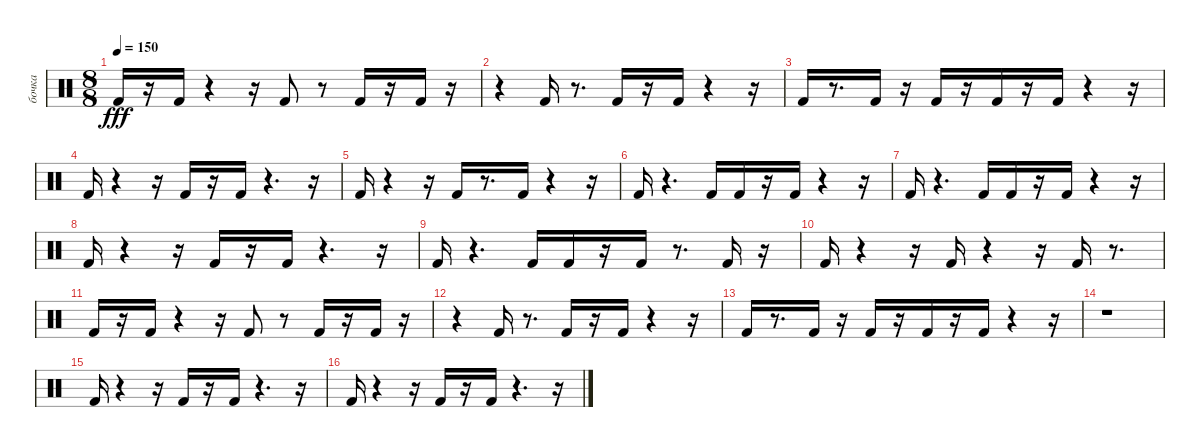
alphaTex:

\track ("бочка" "бочка") {instrument percussion}
\staff {score}
\articulation defaults
\ts (8 8)
\tempo 150
\clef neutral
\ks c "Kick (hit) 2".16{dy fff}
r.16 "Kick (hit) 2".16 r.4 r.16 "Kick (hit) 2".8 r.8 "Kick (hit) 2".16 r.16 "Kick (hit) 2".16 r.16 |
r.4 "Kick (hit) 2".16 r.8{d} "Kick (hit) 2".16 r.16 "Kick (hit) 2".16 r.4 r.16 |
"Kick (hit) 2".16 r.8{d} "Kick (hit) 2".16 r.16 "Kick (hit) 2".16 r.16 "Kick (hit) 2".16 r.16 "Kick (hit) 2".16 r.4 r.16 |
"Kick (hit) 2".16 r.4 r.16 "Kick (hit) 2".16 r.16 "Kick (hit) 2".16 r.4{d} r.16 |
"Kick (hit) 2".16 r.4 r.16 "Kick (hit) 2".16 r.8{d} "Kick (hit) 2".16 r.4 r.16 |
"Kick (hit) 2".16 r.4{d} "Kick (hit) 2".16 "Kick (hit) 2".16 r.16 "Kick (hit) 2".16 r.4 r.16 |
"Kick (hit) 2".16 r.4{d} "Kick (hit) 2".16 "Kick (hit) 2".16 r.16 "Kick (hit) 2".16 r.4 r.16 |
"Kick (hit) 2".16 r.4 r.16 "Kick (hit) 2".16 r.16 "Kick (hit) 2".16 r.4{d} r.16 |
"Kick (hit) 2".16 r.4{d} "Kick (hit) 2".16 "Kick (hit) 2".16 r.16 "Kick (hit) 2".16 r.8{d} "Kick (hit) 2".16 r.16 |
"Kick (hit) 2".16 r.4 r.16 "Kick (hit) 2".16 r.4 r.16 "Kick (hit) 2".16 r.8{d} |
"Kick (hit) 2".16 r.16 "Kick (hit) 2".16 r.4 r.16 "Kick (hit) 2".8 r.8 "Kick (hit) 2".16 r.16 "Kick (hit) 2".16 r.16 |
r.4 "Kick (hit) 2".16 r.8{d} "Kick (hit) 2".16 r.16 "Kick (hit) 2".16 r.4 r.16 |
"Kick (hit) 2".16 r.8{d} "Kick (hit) 2".16 r.16 "Kick (hit) 2".16 r.16 "Kick (hit) 2".16 r.16 "Kick (hit) 2".16 r.4 r.16 |
r.1 |
"Kick (hit) 2".16 r.4 r.16 "Kick (hit) 2".16 r.16 "Kick (hit) 2".16 r.4{d} r.16 |
"Kick (hit) 2".16 r.4 r.16 "Kick (hit) 2".16 r.16 "Kick (hit) 2".16 r.4{d} r.16
